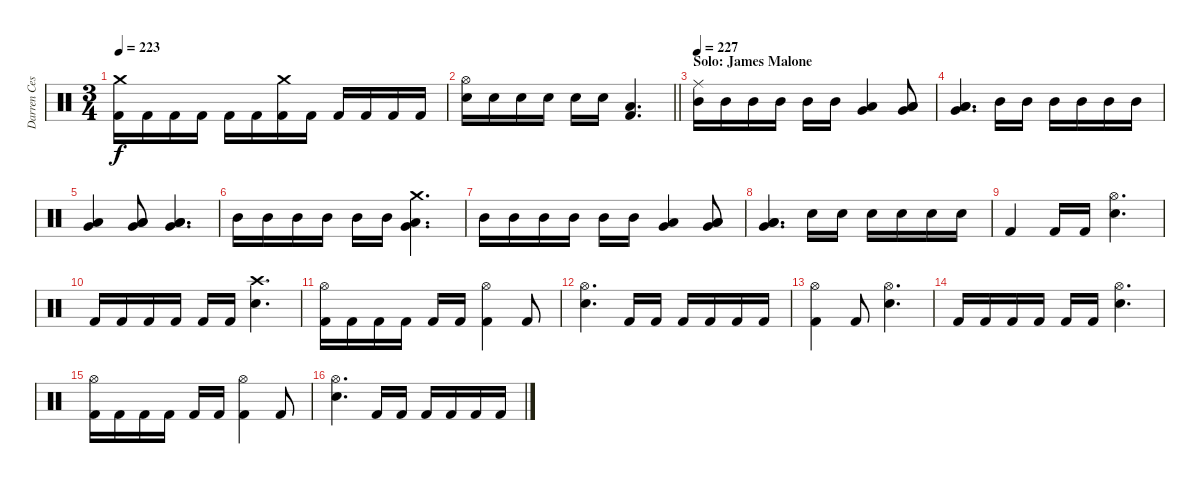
\track ("Darren Cesca" "Darren Ces") {instrument percussion}
\staff {score}
\articulation defaults
\ts (3 4)
\tempo 223
\clef neutral
\ks c
("Crash medium (hit)" "Kick (hit) 2").16{dy f} "Kick (hit) 2".16 "Kick (hit) 2".16 "Kick (hit) 2".16 "Kick (hit) 2".16 "Kick (hit) 2".16 ("Crash medium (hit)" "Kick (hit) 2").16 "Kick (hit) 2".16 "Kick (hit) 2".16 "Kick (hit) 2".16 "Kick (hit) 2".16 "Kick (hit) 2".16 |
\barLineRight lightlight
("Hi-Hat (open)" "Electric Snare (hit)").16 "Electric Snare (hit)".16 "Electric Snare (hit)".16 "Electric Snare (hit)".16 "Electric Snare (hit)".16 "Electric Snare (hit)".16 ("Low Tom (hit)" "Kick (hit) 2").4{d} |
\section ("" "Solo: James Malone")
\tempo 227
("Ride (middle)" "Mid Tom (hit)").16 "Mid Tom (hit)".16 "Mid Tom (hit)".16 "Mid Tom (hit)".16 "Mid Tom (hit)".16 "Mid Tom (hit)".16 ("Low Tom (hit)" "Very Low Tom (hit)").4 ("Low Tom (hit)" "Very Low Tom (hit)" "Low Floor Tom (hit)").8 |
("Low Tom (hit)" "Very Low Tom (hit)" "Low Floor Tom (hit)").4{d} "Mid Tom (hit)".16 "Mid Tom (hit)".16 "Mid Tom (hit)".16 "Mid Tom (hit)".16 "Mid Tom (hit)".16 "Mid Tom (hit)".16 |
("Low Tom (hit)" "Very Low Tom (hit)").4 ("Low Tom (hit)" "Very Low Tom (hit)" "Low Floor Tom (hit)").8 ("Low Tom (hit)" "Very Low Tom (hit)" "Low Floor Tom (hit)").4{d} |
"Mid Tom (hit)".16 "Mid Tom (hit)".16 "Mid Tom (hit)".16 "Mid Tom (hit)".16 "Mid Tom (hit)".16 "Mid Tom (hit)".16 ("Crash medium (hit)" "Low Tom (hit)" "Very Low Tom (hit)").4{d} |
"Mid Tom (hit)".16 "Mid Tom (hit)".16 "Mid Tom (hit)".16 "Mid Tom (hit)".16 "Mid Tom (hit)".16 "Mid Tom (hit)".16 ("Low Tom (hit)" "Very Low Tom (hit)").4 ("Low Tom (hit)" "Very Low Tom (hit)" "Low Floor Tom (hit)").8 |
("Low Tom (hit)" "Very Low Tom (hit)" "Low Floor Tom (hit)").4{d} "Electric Snare (hit)".16 "Electric Snare (hit)".16 "Electric Snare (hit)".16 "Electric Snare (hit)".16 "Electric Snare (hit)".16 "Electric Snare (hit)".16 |
"Kick (hit) 2".4 "Kick (hit) 2".16 "Kick (hit) 2".16 ("Hi-Hat (open)" "Electric Snare (hit)").4{d} |
"Kick (hit) 2".16 "Kick (hit) 2".16 "Kick (hit) 2".16 "Kick (hit) 2".16 "Kick (hit) 2".16 "Kick (hit) 2".16 ("Crash high (hit)" "Electric Snare (hit)").4{d} |
("Hi-Hat (open)" "Kick (hit) 2").16 "Kick (hit) 2".16 "Kick (hit) 2".16 "Kick (hit) 2".16 "Kick (hit) 2".16 "Kick (hit) 2".16 ("Hi-Hat (open)" "Kick (hit) 2").4 "Kick (hit) 2".8 |
("Hi-Hat (open)" "Electric Snare (hit)").4{d} "Kick (hit) 2".16 "Kick (hit) 2".16 "Kick (hit) 2".16 "Kick (hit) 2".16 "Kick (hit) 2".16 "Kick (hit) 2".16 |
("Hi-Hat (open)" "Kick (hit) 2").4 "Kick (hit) 2".8 ("Hi-Hat (open)" "Electric Snare (hit)").4{d} |
"Kick (hit) 2".16 "Kick (hit) 2".16 "Kick (hit) 2".16 "Kick (hit) 2".16 "Kick (hit) 2".16 "Kick (hit) 2".16 ("Hi-Hat (open)" "Electric Snare (hit)").4{d} |
("Hi-Hat (open)" "Kick (hit) 2").16 "Kick (hit) 2".16 "Kick (hit) 2".16 "Kick (hit) 2".16 "Kick (hit) 2".16 "Kick (hit) 2".16 ("Hi-Hat (open)" "Kick (hit) 2").4 "Kick (hit) 2".8 |
("Hi-Hat (open)" "Electric Snare (hit)").4{d} "Kick (hit) 2".16 "Kick (hit) 2".16 "Kick (hit) 2".16 "Kick (hit) 2".16 "Kick (hit) 2".16 "Kick (hit) 2".16
